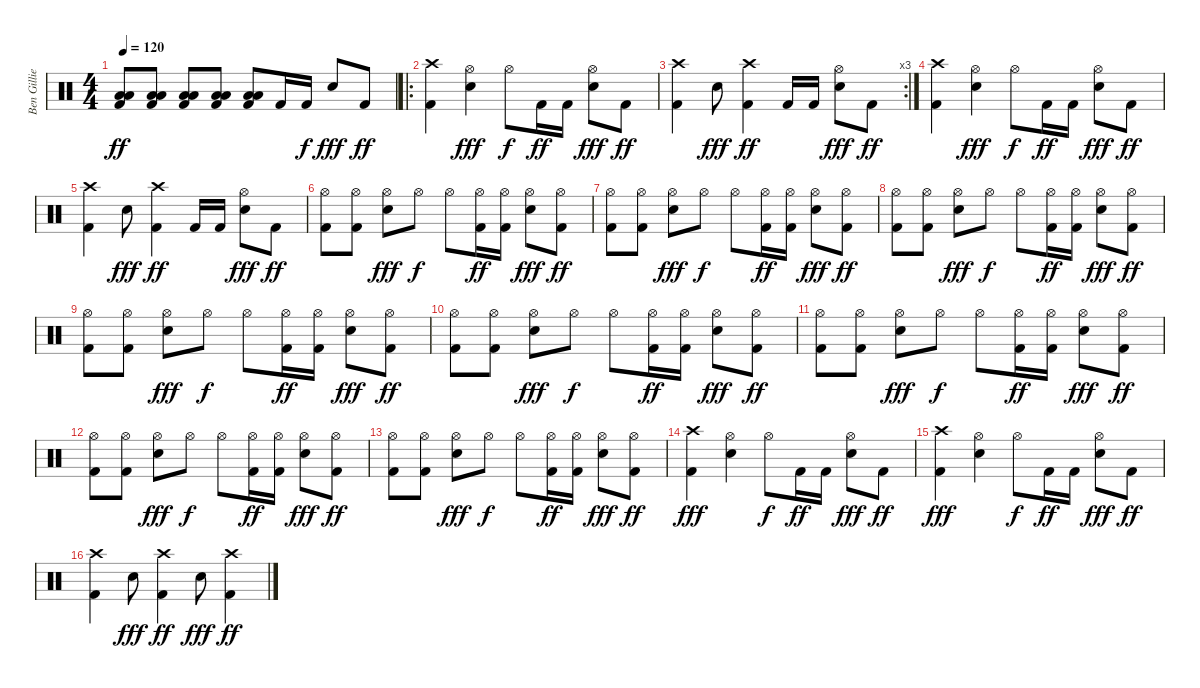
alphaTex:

\track ("Ben Gillies" "Ben Gillie") {instrument percussion}
\staff {score}
\articulation defaults
\ts (4 4)
\tempo 120
\clef neutral
\ks c
("Low Tom (hit)" "Low Floor Tom (hit)" "Kick (hit) 2").8{dy ff} ("Low Tom (hit)" "Low Floor Tom (hit)" "Kick (hit) 2").8 ("Low Tom (hit)" "Low Floor Tom (hit)" "Kick (hit) 2").8 ("Low Tom (hit)" "Low Floor Tom (hit)" "Kick (hit) 2").8 ("Low Tom (hit)" "Low Floor Tom (hit)" "Kick (hit) 2").8 "Kick (hit) 2".16 "Kick (hit) 2".16{dy f} "Electric Snare (hit)".8{dy fff} "Kick (hit) 2".8{dy ff} |
\ro
("Crash high (hit)" "Kick (hit) 2").4 ("Hi-Hat (open)" "Electric Snare (hit)").4{dy fff} "Hi-Hat (open)".8{dy f} "Kick (hit) 2".16{dy ff} "Kick (hit) 2".16 ("Hi-Hat (open)" "Electric Snare (hit)").8{dy fff} "Kick (hit) 2".8{dy ff} |
\rc 3
("Crash high (hit)" "Kick (hit) 2").4 "Electric Snare (hit)".8{dy fff} ("Crash high (hit)" "Kick (hit) 2").4{dy ff} "Kick (hit) 2".16 "Kick (hit) 2".16 ("Hi-Hat (open)" "Electric Snare (hit)").8{dy fff} "Kick (hit) 2".8{dy ff} |
("Crash high (hit)" "Kick (hit) 2").4 ("Hi-Hat (open)" "Electric Snare (hit)").4{dy fff} "Hi-Hat (open)".8{dy f} "Kick (hit) 2".16{dy ff} "Kick (hit) 2".16 ("Hi-Hat (open)" "Electric Snare (hit)").8{dy fff} "Kick (hit) 2".8{dy ff} |
("Crash high (hit)" "Kick (hit) 2").4 "Electric Snare (hit)".8{dy fff} ("Crash high (hit)" "Kick (hit) 2").4{dy ff} "Kick (hit) 2".16 "Kick (hit) 2".16 ("Hi-Hat (open)" "Electric Snare (hit)").8{dy fff} "Kick (hit) 2".8{dy ff} |
("Hi-Hat (open)" "Kick (hit) 2").8 ("Hi-Hat (open)" "Kick (hit) 2").8 ("Hi-Hat (open)" "Electric Snare (hit)").8{dy fff} "Hi-Hat (open)".8{dy f} "Hi-Hat (open)".8 ("Hi-Hat (open)" "Kick (hit) 2").16{dy ff} ("Hi-Hat (open)" "Kick (hit) 2").16 ("Hi-Hat (open)" "Electric Snare (hit)").8{dy fff} ("Hi-Hat (open)" "Kick (hit) 2").8{dy ff} |
("Hi-Hat (open)" "Kick (hit) 2").8 ("Hi-Hat (open)" "Kick (hit) 2").8 ("Hi-Hat (open)" "Electric Snare (hit)").8{dy fff} "Hi-Hat (open)".8{dy f} "Hi-Hat (open)".8 ("Hi-Hat (open)" "Kick (hit) 2").16{dy ff} ("Hi-Hat (open)" "Kick (hit) 2").16 ("Hi-Hat (open)" "Electric Snare (hit)").8{dy fff} ("Hi-Hat (open)" "Kick (hit) 2").8{dy ff} |
("Hi-Hat (open)" "Kick (hit) 2").8 ("Hi-Hat (open)" "Kick (hit) 2").8 ("Hi-Hat (open)" "Electric Snare (hit)").8{dy fff} "Hi-Hat (open)".8{dy f} "Hi-Hat (open)".8 ("Hi-Hat (open)" "Kick (hit) 2").16{dy ff} ("Hi-Hat (open)" "Kick (hit) 2").16 ("Hi-Hat (open)" "Electric Snare (hit)").8{dy fff} ("Hi-Hat (open)" "Kick (hit) 2").8{dy ff} |
("Hi-Hat (open)" "Kick (hit) 2").8 ("Hi-Hat (open)" "Kick (hit) 2").8 ("Hi-Hat (open)" "Electric Snare (hit)").8{dy fff} "Hi-Hat (open)".8{dy f} "Hi-Hat (open)".8 ("Hi-Hat (open)" "Kick (hit) 2").16{dy ff} ("Hi-Hat (open)" "Kick (hit) 2").16 ("Hi-Hat (open)" "Electric Snare (hit)").8{dy fff} ("Hi-Hat (open)" "Kick (hit) 2").8{dy ff} |
("Hi-Hat (open)" "Kick (hit) 2").8 ("Hi-Hat (open)" "Kick (hit) 2").8 ("Hi-Hat (open)" "Electric Snare (hit)").8{dy fff} "Hi-Hat (open)".8{dy f} "Hi-Hat (open)".8 ("Hi-Hat (open)" "Kick (hit) 2").16{dy ff} ("Hi-Hat (open)" "Kick (hit) 2").16 ("Hi-Hat (open)" "Electric Snare (hit)").8{dy fff} ("Hi-Hat (open)" "Kick (hit) 2").8{dy ff} |
("Hi-Hat (open)" "Kick (hit) 2").8 ("Hi-Hat (open)" "Kick (hit) 2").8 ("Hi-Hat (open)" "Electric Snare (hit)").8{dy fff} "Hi-Hat (open)".8{dy f} "Hi-Hat (open)".8 ("Hi-Hat (open)" "Kick (hit) 2").16{dy ff} ("Hi-Hat (open)" "Kick (hit) 2").16 ("Hi-Hat (open)" "Electric Snare (hit)").8{dy fff} ("Hi-Hat (open)" "Kick (hit) 2").8{dy ff} |
("Hi-Hat (open)" "Kick (hit) 2").8 ("Hi-Hat (open)" "Kick (hit) 2").8 ("Hi-Hat (open)" "Electric Snare (hit)").8{dy fff} "Hi-Hat (open)".8{dy f} "Hi-Hat (open)".8 ("Hi-Hat (open)" "Kick (hit) 2").16{dy ff} ("Hi-Hat (open)" "Kick (hit) 2").16 ("Hi-Hat (open)" "Electric Snare (hit)").8{dy fff} ("Hi-Hat (open)" "Kick (hit) 2").8{dy ff} |
("Hi-Hat (open)" "Kick (hit) 2").8 ("Hi-Hat (open)" "Kick (hit) 2").8 ("Hi-Hat (open)" "Electric Snare (hit)").8{dy fff} "Hi-Hat (open)".8{dy f} "Hi-Hat (open)".8 ("Hi-Hat (open)" "Kick (hit) 2").16{dy ff} ("Hi-Hat (open)" "Kick (hit) 2").16 ("Hi-Hat (open)" "Electric Snare (hit)").8{dy fff} ("Hi-Hat (open)" "Kick (hit) 2").8{dy ff} |
("Crash high (hit)" "Kick (hit) 2").4{dy fff} ("Hi-Hat (open)" "Electric Snare (hit)").4 "Hi-Hat (open)".8{dy f} "Kick (hit) 2".16{dy ff} "Kick (hit) 2".16 ("Hi-Hat (open)" "Electric Snare (hit)").8{dy fff} "Kick (hit) 2".8{dy ff} |
("Crash high (hit)" "Kick (hit) 2").4{dy fff} ("Hi-Hat (open)" "Electric Snare (hit)").4 "Hi-Hat (open)".8{dy f} "Kick (hit) 2".16{dy ff} "Kick (hit) 2".16 ("Hi-Hat (open)" "Electric Snare (hit)").8{dy fff} "Kick (hit) 2".8{dy ff} |
("Crash high (hit)" "Kick (hit) 2").4 "Electric Snare (hit)".8{dy fff} ("Crash high (hit)" "Kick (hit) 2").4{dy ff} "Electric Snare (hit)".8{dy fff} ("Crash high (hit)" "Kick (hit) 2").4{dy ff}
